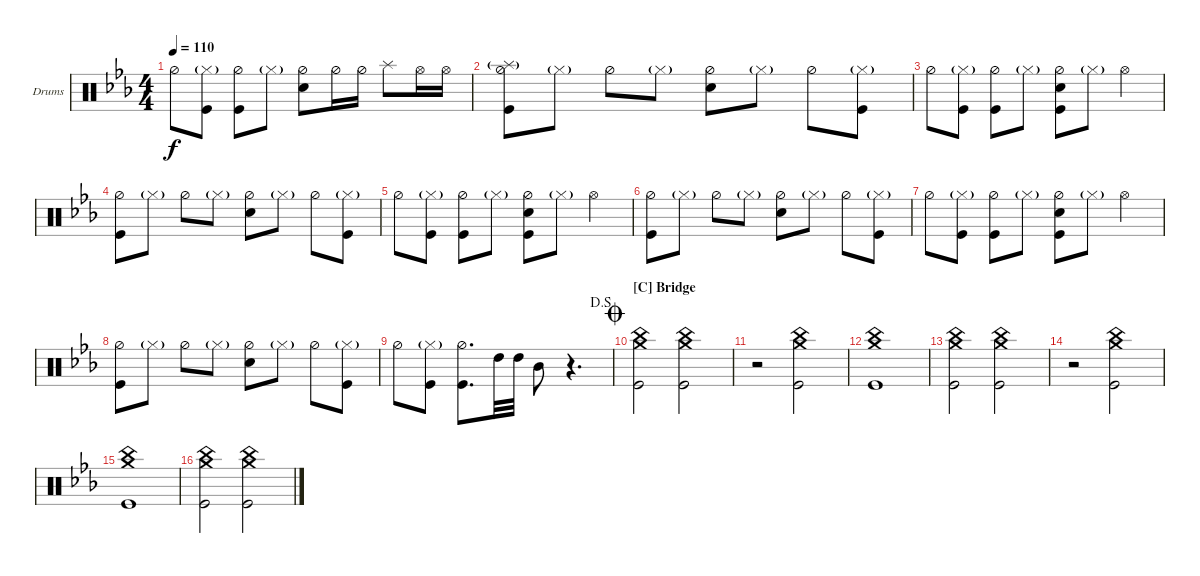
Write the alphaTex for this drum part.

\defaultSystemsLayout 4
\bracketExtendMode groupsimilarinstruments
\firstSystemTrackNameOrientation horizontal
\otherSystemsTrackNameOrientation horizontal
\track ("Drumkit" "Drums") {instrument percussion}
\staff {score}
\articulation defaults
\ts (4 4)
\tempo 110
\clef neutral
\scale
0.333333
\ks cminor "Hi-Hat (half)".8{dy f}
("Hi-Hat (closed)"{g} "Kick (hit)").8 ("Hi-Hat (half)" "Kick (hit)").8 "Hi-Hat (closed)"{g}.8 ("Hi-Hat (half)" "Snare (hit) 2").8 "Hi-Hat (half)".16 "Hi-Hat (half)".16 "Splash (hit)".8 "Hi-Hat (open)".16 "Hi-Hat (open)".16 |
\scale
0.333333 ("Kick (hit)" "Hi-Hat (half)" "Splash (hit)"{g}).8 "Hi-Hat (closed)"{g}.8 "Hi-Hat (half)".8 "Hi-Hat (closed)"{g}.8 ("Hi-Hat (half)" "Snare (hit) 2").8 "Hi-Hat (closed)"{g}.8 "Hi-Hat (half)".8 ("Hi-Hat (closed)"{g} "Kick (hit)").8 |
\scale
0.333333 "Hi-Hat (half)".8 ("Hi-Hat (closed)"{g} "Kick (hit)").8 ("Hi-Hat (half)" "Kick (hit)").8 "Hi-Hat (closed)"{g}.8 ("Hi-Hat (half)" "Snare (hit) 2" "Kick (hit)").8 "Hi-Hat (closed)"{g}.8 "Hi-Hat (open)".4 |
\scale
0.333333 ("Kick (hit)" "Hi-Hat (half)").8 "Hi-Hat (closed)"{g}.8 "Hi-Hat (half)".8 "Hi-Hat (closed)"{g}.8 ("Hi-Hat (half)" "Snare (hit) 2").8 "Hi-Hat (closed)"{g}.8 "Hi-Hat (half)".8 ("Hi-Hat (closed)"{g} "Kick (hit)").8 |
\scale
0.333333 "Hi-Hat (half)".8 ("Hi-Hat (closed)"{g} "Kick (hit)").8 ("Hi-Hat (half)" "Kick (hit)").8 "Hi-Hat (closed)"{g}.8 ("Hi-Hat (half)" "Snare (hit) 2" "Kick (hit)").8 "Hi-Hat (closed)"{g}.8 "Hi-Hat (open)".4 |
\scale
0.333333 ("Kick (hit)" "Hi-Hat (half)").8 "Hi-Hat (closed)"{g}.8 "Hi-Hat (half)".8 "Hi-Hat (closed)"{g}.8 ("Hi-Hat (half)" "Snare (hit) 2").8 "Hi-Hat (closed)"{g}.8 "Hi-Hat (half)".8 ("Hi-Hat (closed)"{g} "Kick (hit)").8 |
\scale
0.333333 "Hi-Hat (half)".8 ("Hi-Hat (closed)"{g} "Kick (hit)").8 ("Hi-Hat (half)" "Kick (hit)").8 "Hi-Hat (closed)"{g}.8 ("Hi-Hat (half)" "Snare (hit) 2" "Kick (hit)").8 "Hi-Hat (closed)"{g}.8 "Hi-Hat (open)".4 |
\scale
0.333333 ("Kick (hit)" "Hi-Hat (half)").8 "Hi-Hat (closed)"{g}.8 "Hi-Hat (half)".8 "Hi-Hat (closed)"{g}.8 ("Hi-Hat (half)" "Snare (hit) 2").8 "Hi-Hat (closed)"{g}.8 "Hi-Hat (half)".8 ("Hi-Hat (closed)"{g} "Kick (hit)").8 |
\jump dalsegno
\scale
0.333333 "Hi-Hat (half)".8 ("Hi-Hat (closed)"{g} "Kick (hit)").8 ("Hi-Hat (half)" "Kick (hit)").8{d} "High Tom (hit)".32 "High Tom (hit)".32 "Mid Tom (hit)".8 r.4{d} |
\section ("C" "Bridge")
\jump coda
\scale
0.333333 ("Kick (hit)" "Crash medium (hit)" "China (hit)").2 ("Kick (hit)" "Crash medium (hit)" "China (hit)").2 |
\scale
0.333333 r.2 ("Kick (hit)" "Crash medium (hit)" "China (hit)").2 |
\scale
0.333333 ("Kick (hit)" "Crash medium (hit)" "China (hit)").1 |
\scale
0.333333 ("Kick (hit)" "Crash medium (hit)" "China (hit)").2 ("Kick (hit)" "Crash medium (hit)" "China (hit)").2 |
\scale
0.333333 r.2 ("Kick (hit)" "Crash medium (hit)" "China (hit)").2 |
\scale
0.333333 ("Kick (hit)" "Crash medium (hit)" "China (hit)").1 |
\scale
0.333333 ("Kick (hit)" "Crash medium (hit)" "China (hit)").2 ("Kick (hit)" "Crash medium (hit)" "China (hit)").2
